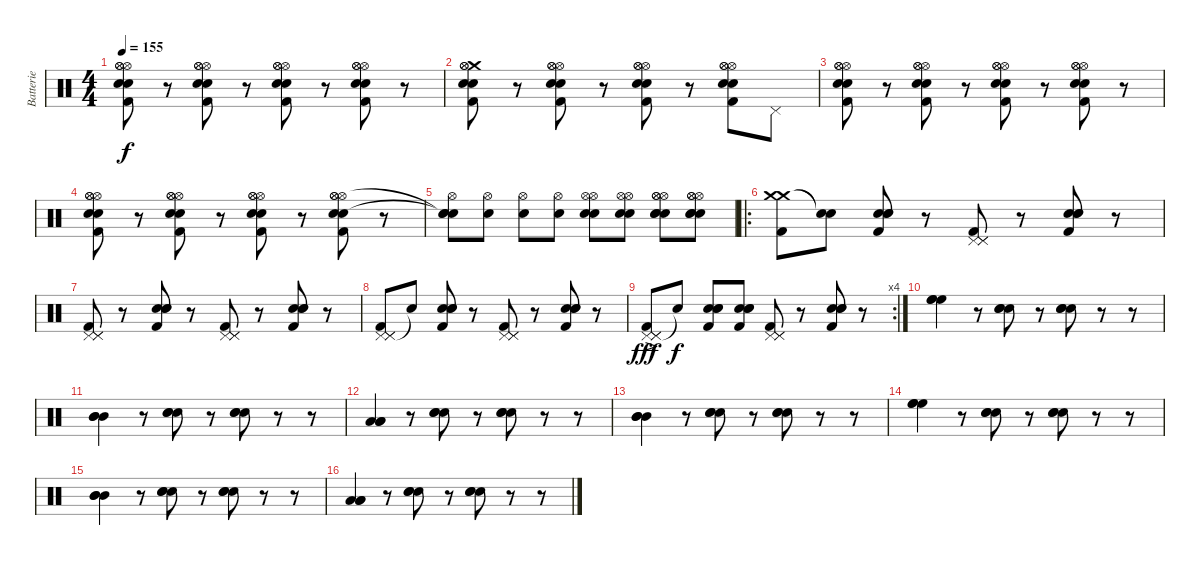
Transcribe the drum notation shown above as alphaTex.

\track ("Batterie" "Batterie") {instrument percussion}
\staff {score}
\articulation defaults
\ts (4 4)
\tempo 155
\clef neutral
\ks c
("Hi-Hat (open)" "Hi-Hat (open)" "Hi-Hat (open)" "Electric Snare (hit)" "Electric Snare (hit)" "Kick (hit) 2").8{dy f} r.8 ("Hi-Hat (open)" "Hi-Hat (open)" "Hi-Hat (open)" "Electric Snare (hit)" "Electric Snare (hit)" "Kick (hit) 2").8 r.8 ("Hi-Hat (open)" "Hi-Hat (open)" "Hi-Hat (open)" "Electric Snare (hit)" "Electric Snare (hit)" "Kick (hit) 2").8 r.8 ("Hi-Hat (open)" "Hi-Hat (open)" "Hi-Hat (open)" "Electric Snare (hit)" "Electric Snare (hit)" "Kick (hit) 2").8 r.8 |
("Crash medium (hit)" "Hi-Hat (open)" "Hi-Hat (open)" "Electric Snare (hit)" "Electric Snare (hit)" "Kick (hit) 2").8 r.8 ("Hi-Hat (open)" "Hi-Hat (open)" "Hi-Hat (open)" "Electric Snare (hit)" "Electric Snare (hit)" "Kick (hit) 2").8 r.8 ("Hi-Hat (open)" "Hi-Hat (open)" "Hi-Hat (open)" "Electric Snare (hit)" "Electric Snare (hit)" "Kick (hit) 2").8 r.8 ("Hi-Hat (open)" "Hi-Hat (open)" "Hi-Hat (open)" "Electric Snare (hit)" "Electric Snare (hit)" "Kick (hit) 2").8 "Pedal Hi-Hat (hit)".8 |
("Hi-Hat (open)" "Hi-Hat (open)" "Hi-Hat (open)" "Electric Snare (hit)" "Electric Snare (hit)" "Kick (hit) 2").8 r.8 ("Hi-Hat (open)" "Hi-Hat (open)" "Hi-Hat (open)" "Electric Snare (hit)" "Electric Snare (hit)" "Kick (hit) 2").8 r.8 ("Hi-Hat (open)" "Hi-Hat (open)" "Hi-Hat (open)" "Electric Snare (hit)" "Electric Snare (hit)" "Kick (hit) 2").8 r.8 ("Hi-Hat (open)" "Hi-Hat (open)" "Hi-Hat (open)" "Electric Snare (hit)" "Electric Snare (hit)" "Kick (hit) 2").8 r.8 |
("Hi-Hat (open)" "Hi-Hat (open)" "Hi-Hat (open)" "Electric Snare (hit)" "Electric Snare (hit)" "Kick (hit) 2").8 r.8 ("Hi-Hat (open)" "Hi-Hat (open)" "Hi-Hat (open)" "Electric Snare (hit)" "Electric Snare (hit)" "Kick (hit) 2").8 r.8 ("Hi-Hat (open)" "Hi-Hat (open)" "Hi-Hat (open)" "Electric Snare (hit)" "Electric Snare (hit)" "Kick (hit) 2").8 r.8 ("Hi-Hat (open)" "Hi-Hat (open)" "Hi-Hat (open)" "Electric Snare (hit)" "Electric Snare (hit)" "Kick (hit) 2").8 r.8 |
("Hi-Hat (open)" "Electric Snare (hit)" "Snare (hit)"{t} "Snare (hit)"{t}).8 ("Hi-Hat (open)" "Electric Snare (hit)").8 ("Hi-Hat (open)" "Electric Snare (hit)").8 ("Hi-Hat (open)" "Electric Snare (hit)").8 ("Hi-Hat (open)" "Hi-Hat (open)" "Electric Snare (hit)" "Electric Snare (hit)").8 ("Hi-Hat (open)" "Hi-Hat (open)" "Electric Snare (hit)" "Electric Snare (hit)").8 ("Hi-Hat (open)" "Hi-Hat (open)" "Hi-Hat (open)" "Electric Snare (hit)" "Electric Snare (hit)" "Electric Snare (hit)").8 ("Hi-Hat (open)" "Hi-Hat (open)" "Hi-Hat (open)" "Electric Snare (hit)" "Electric Snare (hit)" "Electric Snare (hit)").8 |
\ro
("Crash medium (hit)" "Crash medium (hit)" "Kick (hit) 2").8 ("Snare (hit)"{t} "Snare (hit)"{t}).8 ("Electric Snare (hit)" "Electric Snare (hit)" "Electric Snare (hit)" "Kick (hit) 2").8 r.8 ("Pedal Hi-Hat (hit)" "Pedal Hi-Hat (hit)" "Pedal Hi-Hat (hit)" "Kick (hit) 2").8 r.8 ("Electric Snare (hit)" "Electric Snare (hit)" "Electric Snare (hit)" "Kick (hit) 2").8 r.8 |
("Pedal Hi-Hat (hit)" "Pedal Hi-Hat (hit)" "Pedal Hi-Hat (hit)" "Kick (hit) 2").8 r.8 ("Electric Snare (hit)" "Electric Snare (hit)" "Electric Snare (hit)" "Kick (hit) 2").8 r.8 ("Pedal Hi-Hat (hit)" "Pedal Hi-Hat (hit)" "Pedal Hi-Hat (hit)" "Kick (hit) 2").8 r.8 ("Electric Snare (hit)" "Electric Snare (hit)" "Electric Snare (hit)" "Kick (hit) 2").8 r.8 |
("Pedal Hi-Hat (hit)" "Pedal Hi-Hat (hit)" "Pedal Hi-Hat (hit)" "Kick (hit) 2").8 "Snare (hit)"{t}.8 ("Electric Snare (hit)" "Electric Snare (hit)" "Electric Snare (hit)" "Kick (hit) 2").8 r.8 ("Pedal Hi-Hat (hit)" "Pedal Hi-Hat (hit)" "Pedal Hi-Hat (hit)" "Kick (hit) 2").8 r.8 ("Electric Snare (hit)" "Electric Snare (hit)" "Electric Snare (hit)" "Kick (hit) 2").8 r.8 |
\rc 4
("Pedal Hi-Hat (hit)"{ac} "Pedal Hi-Hat (hit)" "Pedal Hi-Hat (hit)" "Kick (hit) 2").8{dy fff} "Snare (hit)"{t}.8{dy f} ("Electric Snare (hit)" "Electric Snare (hit)" "Electric Snare (hit)" "Kick (hit) 2").8 ("Electric Snare (hit)" "Electric Snare (hit)" "Electric Snare (hit)" "Kick (hit) 2").8 ("Pedal Hi-Hat (hit)" "Pedal Hi-Hat (hit)" "Pedal Hi-Hat (hit)" "Kick (hit) 2").8 r.8 ("Electric Snare (hit)" "Electric Snare (hit)" "Electric Snare (hit)" "Kick (hit) 2").8 r.8 |
("High Floor Tom (hit)" "High Floor Tom (hit)" "High Floor Tom (hit)").4 r.8 ("Snare (hit) 2" "Snare (hit) 2" "Snare (hit) 2").8 r.8 ("Snare (hit) 2" "Snare (hit) 2" "Snare (hit) 2").8 r.8 r.8 |
("Mid Tom (hit)" "Mid Tom (hit)" "Mid Tom (hit)").4 r.8 ("Snare (hit) 2" "Snare (hit) 2" "Snare (hit) 2").8 r.8 ("Snare (hit) 2" "Snare (hit) 2" "Snare (hit) 2").8 r.8 r.8 |
("Low Tom (hit)" "Low Tom (hit)" "Low Tom (hit)").4 r.8 ("Snare (hit) 2" "Snare (hit) 2" "Snare (hit) 2").8 r.8 ("Snare (hit) 2" "Snare (hit) 2" "Snare (hit) 2").8 r.8 r.8 |
("Mid Tom (hit)" "Mid Tom (hit)" "Mid Tom (hit)").4 r.8 ("Snare (hit) 2" "Snare (hit) 2" "Snare (hit) 2").8 r.8 ("Snare (hit) 2" "Snare (hit) 2" "Snare (hit) 2").8 r.8 r.8 |
("High Floor Tom (hit)" "High Floor Tom (hit)" "High Floor Tom (hit)").4 r.8 ("Snare (hit) 2" "Snare (hit) 2" "Snare (hit) 2").8 r.8 ("Snare (hit) 2" "Snare (hit) 2" "Snare (hit) 2").8 r.8 r.8 |
("Mid Tom (hit)" "Mid Tom (hit)" "Mid Tom (hit)").4 r.8 ("Snare (hit) 2" "Snare (hit) 2" "Snare (hit) 2").8 r.8 ("Snare (hit) 2" "Snare (hit) 2" "Snare (hit) 2").8 r.8 r.8 |
("Low Tom (hit)" "Low Tom (hit)" "Low Tom (hit)").4 r.8 ("Snare (hit) 2" "Snare (hit) 2" "Snare (hit) 2").8 r.8 ("Snare (hit) 2" "Snare (hit) 2" "Snare (hit) 2").8 r.8 r.8
